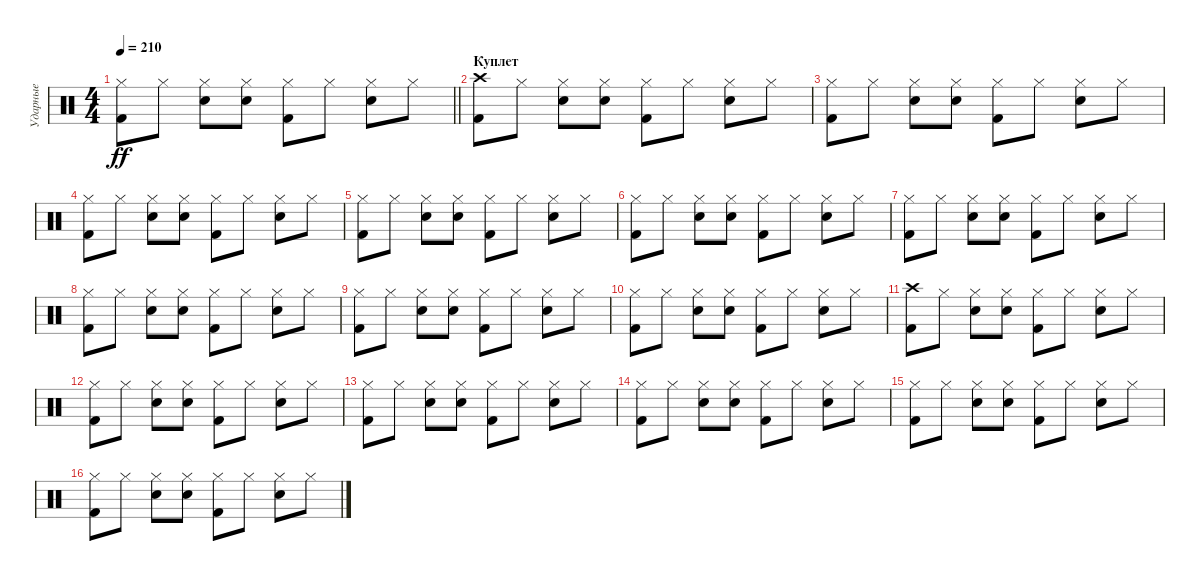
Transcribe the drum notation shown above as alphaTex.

\track ("Ударные" "Ударные") {instrument percussion}
\staff {score}
\articulation defaults
\ts (4 4)
\tempo 210
\clef neutral
\barLineRight lightlight
\ks c
("Hi-Hat (closed)" "Kick (hit) 2").8{dy ff} "Hi-Hat (closed)".8 ("Hi-Hat (closed)" "Snare (hit) 2").8 ("Hi-Hat (closed)" "Snare (hit) 2").8 ("Hi-Hat (closed)" "Kick (hit) 2").8 "Hi-Hat (closed)".8 ("Hi-Hat (closed)" "Snare (hit) 2").8 "Hi-Hat (closed)".8 |
\section ("" "Куплет")
("Crash high (hit)" "Kick (hit) 2").8 "Hi-Hat (closed)".8 ("Hi-Hat (closed)" "Snare (hit) 2").8 ("Hi-Hat (closed)" "Snare (hit) 2").8 ("Hi-Hat (closed)" "Kick (hit) 2").8 "Hi-Hat (closed)".8 ("Hi-Hat (closed)" "Snare (hit) 2").8 "Hi-Hat (closed)".8 |
("Hi-Hat (closed)" "Kick (hit) 2").8 "Hi-Hat (closed)".8 ("Hi-Hat (closed)" "Snare (hit) 2").8 ("Hi-Hat (closed)" "Snare (hit) 2").8 ("Hi-Hat (closed)" "Kick (hit) 2").8 "Hi-Hat (closed)".8 ("Hi-Hat (closed)" "Snare (hit) 2").8 "Hi-Hat (closed)".8 |
("Hi-Hat (closed)" "Kick (hit) 2").8 "Hi-Hat (closed)".8 ("Hi-Hat (closed)" "Snare (hit) 2").8 ("Hi-Hat (closed)" "Snare (hit) 2").8 ("Hi-Hat (closed)" "Kick (hit) 2").8 "Hi-Hat (closed)".8 ("Hi-Hat (closed)" "Snare (hit) 2").8 "Hi-Hat (closed)".8 |
("Hi-Hat (closed)" "Kick (hit) 2").8 "Hi-Hat (closed)".8 ("Hi-Hat (closed)" "Snare (hit) 2").8 ("Hi-Hat (closed)" "Snare (hit) 2").8 ("Hi-Hat (closed)" "Kick (hit) 2").8 "Hi-Hat (closed)".8 ("Hi-Hat (closed)" "Snare (hit) 2").8 "Hi-Hat (closed)".8 |
("Hi-Hat (closed)" "Kick (hit) 2").8 "Hi-Hat (closed)".8 ("Hi-Hat (closed)" "Snare (hit) 2").8 ("Hi-Hat (closed)" "Snare (hit) 2").8 ("Hi-Hat (closed)" "Kick (hit) 2").8 "Hi-Hat (closed)".8 ("Hi-Hat (closed)" "Snare (hit) 2").8 "Hi-Hat (closed)".8 |
("Hi-Hat (closed)" "Kick (hit) 2").8 "Hi-Hat (closed)".8 ("Hi-Hat (closed)" "Snare (hit) 2").8 ("Hi-Hat (closed)" "Snare (hit) 2").8 ("Hi-Hat (closed)" "Kick (hit) 2").8 "Hi-Hat (closed)".8 ("Hi-Hat (closed)" "Snare (hit) 2").8 "Hi-Hat (closed)".8 |
("Hi-Hat (closed)" "Kick (hit) 2").8 "Hi-Hat (closed)".8 ("Hi-Hat (closed)" "Snare (hit) 2").8 ("Hi-Hat (closed)" "Snare (hit) 2").8 ("Hi-Hat (closed)" "Kick (hit) 2").8 "Hi-Hat (closed)".8 ("Hi-Hat (closed)" "Snare (hit) 2").8 "Hi-Hat (closed)".8 |
("Hi-Hat (closed)" "Kick (hit) 2").8 "Hi-Hat (closed)".8 ("Hi-Hat (closed)" "Snare (hit) 2").8 ("Hi-Hat (closed)" "Snare (hit) 2").8 ("Hi-Hat (closed)" "Kick (hit) 2").8 "Hi-Hat (closed)".8 ("Hi-Hat (closed)" "Snare (hit) 2").8 "Hi-Hat (closed)".8 |
("Hi-Hat (closed)" "Kick (hit) 2").8 "Hi-Hat (closed)".8 ("Hi-Hat (closed)" "Snare (hit) 2").8 ("Hi-Hat (closed)" "Snare (hit) 2").8 ("Hi-Hat (closed)" "Kick (hit) 2").8 "Hi-Hat (closed)".8 ("Hi-Hat (closed)" "Snare (hit) 2").8 "Hi-Hat (closed)".8 |
("Crash high (hit)" "Kick (hit) 2").8 "Hi-Hat (closed)".8 ("Hi-Hat (closed)" "Snare (hit) 2").8 ("Hi-Hat (closed)" "Snare (hit) 2").8 ("Hi-Hat (closed)" "Kick (hit) 2").8 "Hi-Hat (closed)".8 ("Hi-Hat (closed)" "Snare (hit) 2").8 "Hi-Hat (closed)".8 |
("Hi-Hat (closed)" "Kick (hit) 2").8 "Hi-Hat (closed)".8 ("Hi-Hat (closed)" "Snare (hit) 2").8 ("Hi-Hat (closed)" "Snare (hit) 2").8 ("Hi-Hat (closed)" "Kick (hit) 2").8 "Hi-Hat (closed)".8 ("Hi-Hat (closed)" "Snare (hit) 2").8 "Hi-Hat (closed)".8 |
("Hi-Hat (closed)" "Kick (hit) 2").8 "Hi-Hat (closed)".8 ("Hi-Hat (closed)" "Snare (hit) 2").8 ("Hi-Hat (closed)" "Snare (hit) 2").8 ("Hi-Hat (closed)" "Kick (hit) 2").8 "Hi-Hat (closed)".8 ("Hi-Hat (closed)" "Snare (hit) 2").8 "Hi-Hat (closed)".8 |
("Hi-Hat (closed)" "Kick (hit) 2").8 "Hi-Hat (closed)".8 ("Hi-Hat (closed)" "Snare (hit) 2").8 ("Hi-Hat (closed)" "Snare (hit) 2").8 ("Hi-Hat (closed)" "Kick (hit) 2").8 "Hi-Hat (closed)".8 ("Hi-Hat (closed)" "Snare (hit) 2").8 "Hi-Hat (closed)".8 |
("Hi-Hat (closed)" "Kick (hit) 2").8 "Hi-Hat (closed)".8 ("Hi-Hat (closed)" "Snare (hit) 2").8 ("Hi-Hat (closed)" "Snare (hit) 2").8 ("Hi-Hat (closed)" "Kick (hit) 2").8 "Hi-Hat (closed)".8 ("Hi-Hat (closed)" "Snare (hit) 2").8 "Hi-Hat (closed)".8 |
("Hi-Hat (closed)" "Kick (hit) 2").8 "Hi-Hat (closed)".8 ("Hi-Hat (closed)" "Snare (hit) 2").8 ("Hi-Hat (closed)" "Snare (hit) 2").8 ("Hi-Hat (closed)" "Kick (hit) 2").8 "Hi-Hat (closed)".8 ("Hi-Hat (closed)" "Snare (hit) 2").8 "Hi-Hat (closed)".8
